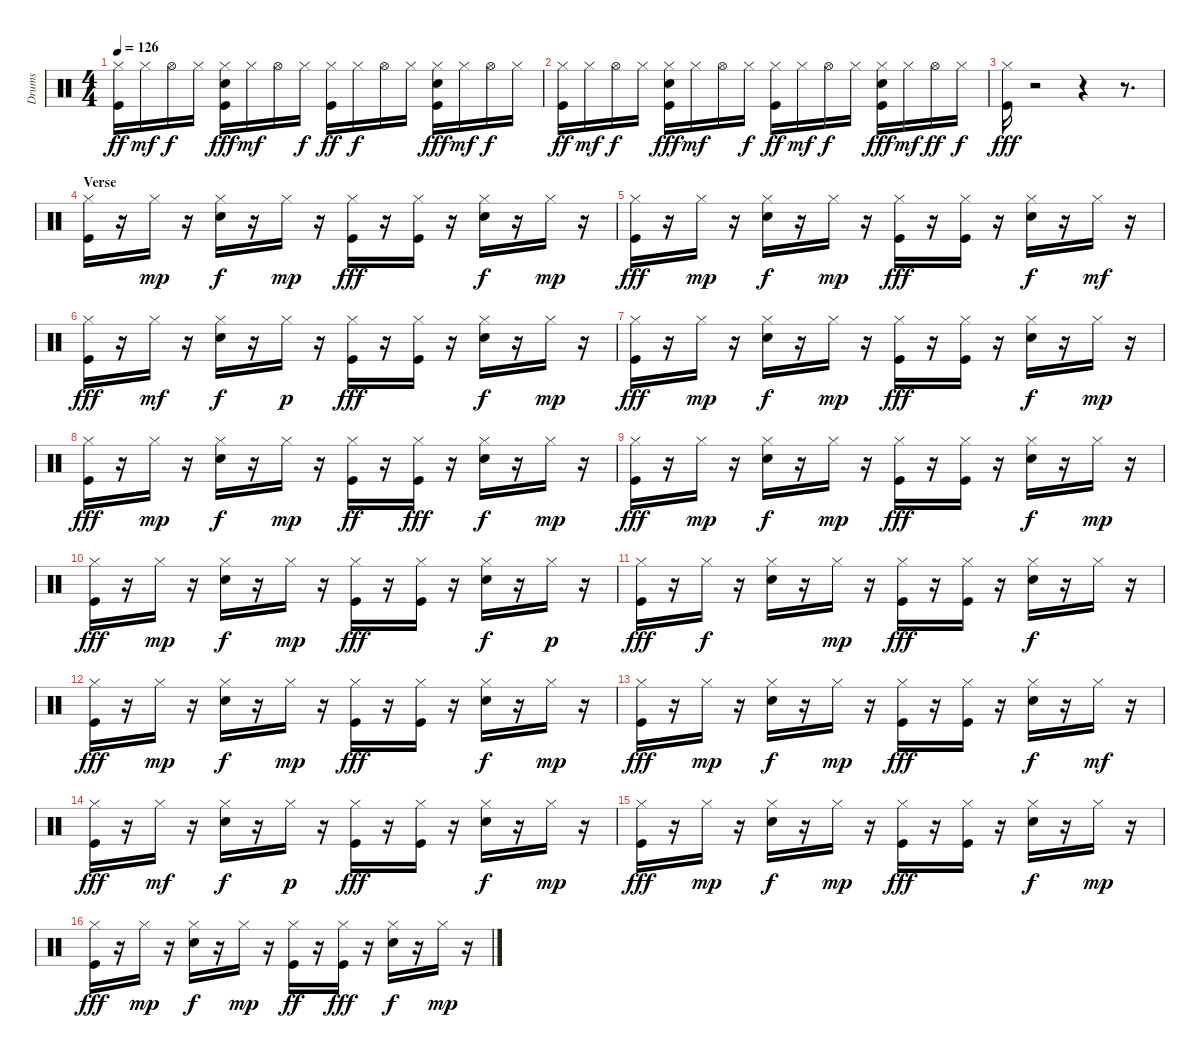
\track ("Drums" "Drums") {instrument percussion}
\staff {score}
\articulation defaults
\ts (4 4)
\tempo 126
\clef neutral
\ks c
("Kick (hit)" "Hi-Hat (closed)").16{dy ff} "Hi-Hat (closed)".16{dy mf} "Hi-Hat (open)".16{dy f} "Hi-Hat (closed)".16 ("Kick (hit)" "Electric Snare (hit)" "Hi-Hat (closed)").16{dy fff} "Hi-Hat (closed)".16{dy mf} "Hi-Hat (open)".16 "Hi-Hat (closed)".16{dy f} ("Kick (hit)" "Hi-Hat (closed)").16{dy ff} "Hi-Hat (closed)".16{dy f} "Hi-Hat (open)".16 "Hi-Hat (closed)".16 ("Kick (hit)" "Electric Snare (hit)" "Hi-Hat (closed)").16{dy fff} "Hi-Hat (closed)".16{dy mf} "Hi-Hat (open)".16{dy f} "Hi-Hat (closed)".16 |
("Kick (hit)" "Hi-Hat (closed)").16{dy ff} "Hi-Hat (closed)".16{dy mf} "Hi-Hat (open)".16{dy f} "Hi-Hat (closed)".16 ("Kick (hit)" "Electric Snare (hit)" "Hi-Hat (closed)").16{dy fff} "Hi-Hat (closed)".16{dy mf} "Hi-Hat (open)".16 "Hi-Hat (closed)".16{dy f} ("Kick (hit)" "Hi-Hat (closed)").16{dy ff} "Hi-Hat (closed)".16{dy mf} "Hi-Hat (open)".16{dy f} "Hi-Hat (closed)".16 ("Kick (hit)" "Electric Snare (hit)" "Hi-Hat (closed)").16{dy fff} "Hi-Hat (closed)".16{dy mf} "Hi-Hat (open)".16{dy ff} "Hi-Hat (closed)".16{dy f} |
("Kick (hit)" "Hi-Hat (closed)").16{dy fff} r.2 r.4 r.8{d} |
\section ("" "Verse")
("Kick (hit)" "Hi-Hat (closed)").16 r.16 "Hi-Hat (closed)".16{dy mp} r.16 ("Electric Snare (hit)" "Hi-Hat (closed)").16{dy f} r.16 "Hi-Hat (closed)".16{dy mp} r.16 ("Kick (hit)" "Hi-Hat (closed)").16{dy fff} r.16 ("Kick (hit)" "Hi-Hat (closed)").16 r.16 ("Electric Snare (hit)" "Hi-Hat (closed)").16{dy f} r.16 "Hi-Hat (closed)".16{dy mp} r.16 |
("Kick (hit)" "Hi-Hat (closed)").16{dy fff} r.16 "Hi-Hat (closed)".16{dy mp} r.16 ("Electric Snare (hit)" "Hi-Hat (closed)").16{dy f} r.16 "Hi-Hat (closed)".16{dy mp} r.16 ("Kick (hit)" "Hi-Hat (closed)").16{dy fff} r.16 ("Kick (hit)" "Hi-Hat (closed)").16 r.16 ("Electric Snare (hit)" "Hi-Hat (closed)").16{dy f} r.16 "Hi-Hat (closed)".16{dy mf} r.16 |
("Kick (hit)" "Hi-Hat (closed)").16{dy fff} r.16 "Hi-Hat (closed)".16{dy mf} r.16 ("Electric Snare (hit)" "Hi-Hat (closed)").16{dy f} r.16 "Hi-Hat (closed)".16{dy p} r.16 ("Kick (hit)" "Hi-Hat (closed)").16{dy fff} r.16 ("Kick (hit)" "Hi-Hat (closed)").16 r.16 ("Electric Snare (hit)" "Hi-Hat (closed)").16{dy f} r.16 "Hi-Hat (closed)".16{dy mp} r.16 |
("Kick (hit)" "Hi-Hat (closed)").16{dy fff} r.16 "Hi-Hat (closed)".16{dy mp} r.16 ("Electric Snare (hit)" "Hi-Hat (closed)").16{dy f} r.16 "Hi-Hat (closed)".16{dy mp} r.16 ("Kick (hit)" "Hi-Hat (closed)").16{dy fff} r.16 ("Kick (hit)" "Hi-Hat (closed)").16 r.16 ("Electric Snare (hit)" "Hi-Hat (closed)").16{dy f} r.16 "Hi-Hat (closed)".16{dy mp} r.16 |
("Kick (hit)" "Hi-Hat (closed)").16{dy fff} r.16 "Hi-Hat (closed)".16{dy mp} r.16 ("Electric Snare (hit)" "Hi-Hat (closed)").16{dy f} r.16 "Hi-Hat (closed)".16{dy mp} r.16 ("Kick (hit)" "Hi-Hat (closed)").16{dy ff} r.16 ("Kick (hit)" "Hi-Hat (closed)").16{dy fff} r.16 ("Electric Snare (hit)" "Hi-Hat (closed)").16{dy f} r.16 "Hi-Hat (closed)".16{dy mp} r.16 |
("Kick (hit)" "Hi-Hat (closed)").16{dy fff} r.16 "Hi-Hat (closed)".16{dy mp} r.16 ("Electric Snare (hit)" "Hi-Hat (closed)").16{dy f} r.16 "Hi-Hat (closed)".16{dy mp} r.16 ("Kick (hit)" "Hi-Hat (closed)").16{dy fff} r.16 ("Kick (hit)" "Hi-Hat (closed)").16 r.16 ("Electric Snare (hit)" "Hi-Hat (closed)").16{dy f} r.16 "Hi-Hat (closed)".16{dy mp} r.16 |
("Kick (hit)" "Hi-Hat (closed)").16{dy fff} r.16 "Hi-Hat (closed)".16{dy mp} r.16 ("Electric Snare (hit)" "Hi-Hat (closed)").16{dy f} r.16 "Hi-Hat (closed)".16{dy mp} r.16 ("Kick (hit)" "Hi-Hat (closed)").16{dy fff} r.16 ("Kick (hit)" "Hi-Hat (closed)").16 r.16 ("Electric Snare (hit)" "Hi-Hat (closed)").16{dy f} r.16 "Hi-Hat (closed)".16{dy p} r.16 |
("Kick (hit)" "Hi-Hat (closed)").16{dy fff} r.16 "Hi-Hat (closed)".16{dy f} r.16 ("Electric Snare (hit)" "Hi-Hat (closed)").16 r.16 "Hi-Hat (closed)".16{dy mp} r.16 ("Kick (hit)" "Hi-Hat (closed)").16{dy fff} r.16 ("Kick (hit)" "Hi-Hat (closed)").16 r.16 ("Electric Snare (hit)" "Hi-Hat (closed)").16{dy f} r.16 "Hi-Hat (closed)".16 r.16 |
("Kick (hit)" "Hi-Hat (closed)").16{dy fff} r.16 "Hi-Hat (closed)".16{dy mp} r.16 ("Electric Snare (hit)" "Hi-Hat (closed)").16{dy f} r.16 "Hi-Hat (closed)".16{dy mp} r.16 ("Kick (hit)" "Hi-Hat (closed)").16{dy fff} r.16 ("Kick (hit)" "Hi-Hat (closed)").16 r.16 ("Electric Snare (hit)" "Hi-Hat (closed)").16{dy f} r.16 "Hi-Hat (closed)".16{dy mp} r.16 |
("Kick (hit)" "Hi-Hat (closed)").16{dy fff} r.16 "Hi-Hat (closed)".16{dy mp} r.16 ("Electric Snare (hit)" "Hi-Hat (closed)").16{dy f} r.16 "Hi-Hat (closed)".16{dy mp} r.16 ("Kick (hit)" "Hi-Hat (closed)").16{dy fff} r.16 ("Kick (hit)" "Hi-Hat (closed)").16 r.16 ("Electric Snare (hit)" "Hi-Hat (closed)").16{dy f} r.16 "Hi-Hat (closed)".16{dy mf} r.16 |
("Kick (hit)" "Hi-Hat (closed)").16{dy fff} r.16 "Hi-Hat (closed)".16{dy mf} r.16 ("Electric Snare (hit)" "Hi-Hat (closed)").16{dy f} r.16 "Hi-Hat (closed)".16{dy p} r.16 ("Kick (hit)" "Hi-Hat (closed)").16{dy fff} r.16 ("Kick (hit)" "Hi-Hat (closed)").16 r.16 ("Electric Snare (hit)" "Hi-Hat (closed)").16{dy f} r.16 "Hi-Hat (closed)".16{dy mp} r.16 |
("Kick (hit)" "Hi-Hat (closed)").16{dy fff} r.16 "Hi-Hat (closed)".16{dy mp} r.16 ("Electric Snare (hit)" "Hi-Hat (closed)").16{dy f} r.16 "Hi-Hat (closed)".16{dy mp} r.16 ("Kick (hit)" "Hi-Hat (closed)").16{dy fff} r.16 ("Kick (hit)" "Hi-Hat (closed)").16 r.16 ("Electric Snare (hit)" "Hi-Hat (closed)").16{dy f} r.16 "Hi-Hat (closed)".16{dy mp} r.16 |
("Kick (hit)" "Hi-Hat (closed)").16{dy fff} r.16 "Hi-Hat (closed)".16{dy mp} r.16 ("Electric Snare (hit)" "Hi-Hat (closed)").16{dy f} r.16 "Hi-Hat (closed)".16{dy mp} r.16 ("Kick (hit)" "Hi-Hat (closed)").16{dy ff} r.16 ("Kick (hit)" "Hi-Hat (closed)").16{dy fff} r.16 ("Electric Snare (hit)" "Hi-Hat (closed)").16{dy f} r.16 "Hi-Hat (closed)".16{dy mp} r.16
